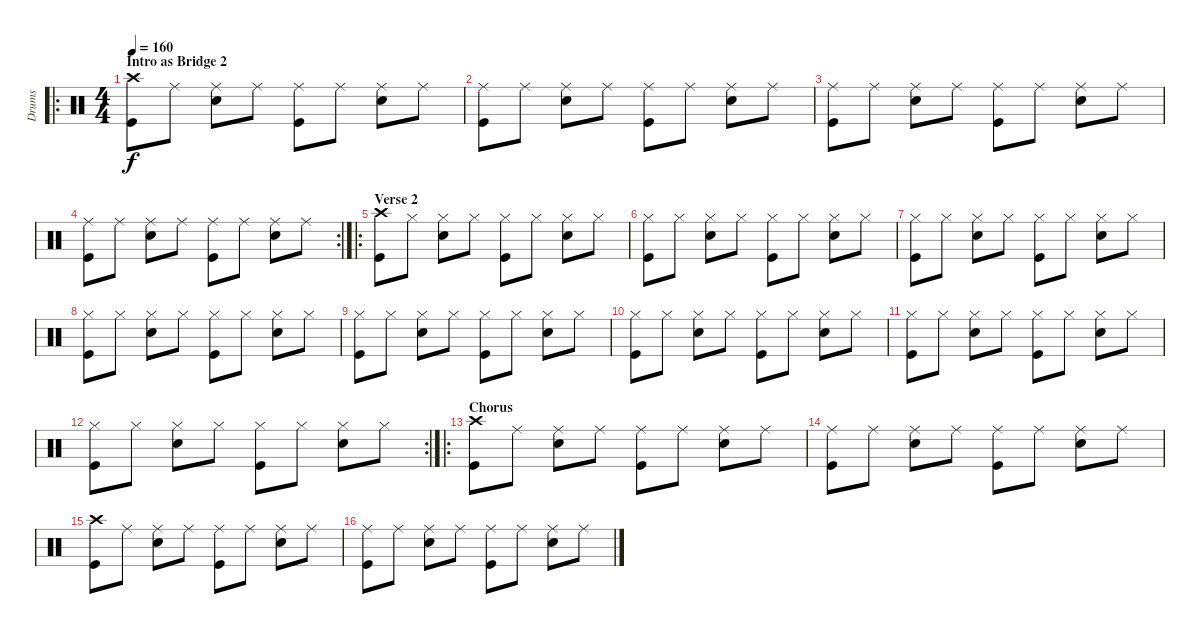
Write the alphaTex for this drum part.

\track ("Drums" "Drums") {instrument percussion}
\staff {score}
\articulation defaults
\ro
\ts (4 4)
\section ("" "Intro as Bridge 2 ")
\tempo 160
\clef neutral
\ks c
("Crash high (hit)" "Kick (hit)").8{dy f} "Ride (middle)".8 ("Ride (middle)" "Snare (hit) 2").8 "Ride (middle)".8 ("Ride (middle)" "Kick (hit)").8 "Ride (middle)".8 ("Ride (middle)" "Snare (hit) 2").8 "Ride (middle)".8 |
("Ride (middle)" "Kick (hit)").8 "Ride (middle)".8 ("Ride (middle)" "Snare (hit) 2").8 "Ride (middle)".8 ("Ride (middle)" "Kick (hit)").8 "Ride (middle)".8 ("Ride (middle)" "Snare (hit) 2").8 "Ride (middle)".8 |
("Ride (middle)" "Kick (hit)").8 "Ride (middle)".8 ("Ride (middle)" "Snare (hit) 2").8 "Ride (middle)".8 ("Ride (middle)" "Kick (hit)").8 "Ride (middle)".8 ("Ride (middle)" "Snare (hit) 2").8 "Ride (middle)".8 |
\rc 2
("Ride (middle)" "Kick (hit)").8 "Ride (middle)".8 ("Ride (middle)" "Snare (hit) 2").8 "Ride (middle)".8 ("Ride (middle)" "Kick (hit)").8 "Ride (middle)".8 ("Ride (middle)" "Snare (hit) 2").8 "Ride (middle)".8 |
\ro
\section ("" "Verse 2")
("Crash high (hit)" "Kick (hit)").8 "Hi-Hat (closed)".8 ("Hi-Hat (closed)" "Snare (hit) 2").8 "Hi-Hat (closed)".8 ("Hi-Hat (closed)" "Kick (hit)").8 "Hi-Hat (closed)".8 ("Hi-Hat (closed)" "Snare (hit) 2").8 "Hi-Hat (closed)".8 |
("Hi-Hat (closed)" "Kick (hit)").8 "Hi-Hat (closed)".8 ("Hi-Hat (closed)" "Snare (hit) 2").8 "Hi-Hat (closed)".8 ("Hi-Hat (closed)" "Kick (hit)").8 "Hi-Hat (closed)".8 ("Hi-Hat (closed)" "Snare (hit) 2").8 "Hi-Hat (closed)".8 |
("Hi-Hat (closed)" "Kick (hit)").8 "Hi-Hat (closed)".8 ("Hi-Hat (closed)" "Snare (hit) 2").8 "Hi-Hat (closed)".8 ("Hi-Hat (closed)" "Kick (hit)").8 "Hi-Hat (closed)".8 ("Hi-Hat (closed)" "Snare (hit) 2").8 "Hi-Hat (closed)".8 |
("Hi-Hat (closed)" "Kick (hit)").8 "Hi-Hat (closed)".8 ("Hi-Hat (closed)" "Snare (hit) 2").8 "Hi-Hat (closed)".8 ("Hi-Hat (closed)" "Kick (hit)").8 "Hi-Hat (closed)".8 ("Hi-Hat (closed)" "Snare (hit) 2").8 "Hi-Hat (closed)".8 |
("Hi-Hat (closed)" "Kick (hit)").8 "Hi-Hat (closed)".8 ("Hi-Hat (closed)" "Snare (hit) 2").8 "Hi-Hat (closed)".8 ("Hi-Hat (closed)" "Kick (hit)").8 "Hi-Hat (closed)".8 ("Hi-Hat (closed)" "Snare (hit) 2").8 "Hi-Hat (closed)".8 |
("Hi-Hat (closed)" "Kick (hit)").8 "Hi-Hat (closed)".8 ("Hi-Hat (closed)" "Snare (hit) 2").8 "Hi-Hat (closed)".8 ("Hi-Hat (closed)" "Kick (hit)").8 "Hi-Hat (closed)".8 ("Hi-Hat (closed)" "Snare (hit) 2").8 "Hi-Hat (closed)".8 |
("Hi-Hat (closed)" "Kick (hit)").8 "Hi-Hat (closed)".8 ("Hi-Hat (closed)" "Snare (hit) 2").8 "Hi-Hat (closed)".8 ("Hi-Hat (closed)" "Kick (hit)").8 "Hi-Hat (closed)".8 ("Hi-Hat (closed)" "Snare (hit) 2").8 "Hi-Hat (closed)".8 |
\rc 2
("Hi-Hat (closed)" "Kick (hit)").8 "Hi-Hat (closed)".8 ("Hi-Hat (closed)" "Snare (hit) 2").8 "Hi-Hat (closed)".8 ("Hi-Hat (closed)" "Kick (hit)").8 "Hi-Hat (closed)".8 ("Hi-Hat (closed)" "Snare (hit) 2").8 "Hi-Hat (closed)".8 |
\ro
\section ("" "Chorus")
("Crash high (hit)" "Kick (hit)").8 "Ride (middle)".8 ("Ride (middle)" "Snare (hit) 2").8 "Ride (middle)".8 ("Ride (middle)" "Kick (hit)").8 "Ride (middle)".8 ("Ride (middle)" "Snare (hit) 2").8 "Ride (middle)".8 |
("Ride (middle)" "Kick (hit)").8 "Ride (middle)".8 ("Ride (middle)" "Snare (hit) 2").8 "Ride (middle)".8 ("Ride (middle)" "Kick (hit)").8 "Ride (middle)".8 ("Ride (middle)" "Snare (hit) 2").8 "Ride (middle)".8 |
("Crash high (hit)" "Kick (hit)").8 "Ride (middle)".8 ("Ride (middle)" "Snare (hit) 2").8 "Ride (middle)".8 ("Ride (middle)" "Kick (hit)").8 "Ride (middle)".8 ("Ride (middle)" "Snare (hit) 2").8 "Ride (middle)".8 |
("Ride (middle)" "Kick (hit)").8 "Ride (middle)".8 ("Ride (middle)" "Snare (hit) 2").8 "Ride (middle)".8 ("Ride (middle)" "Kick (hit)").8 "Ride (middle)".8 ("Ride (middle)" "Snare (hit) 2").8 "Ride (middle)".8
